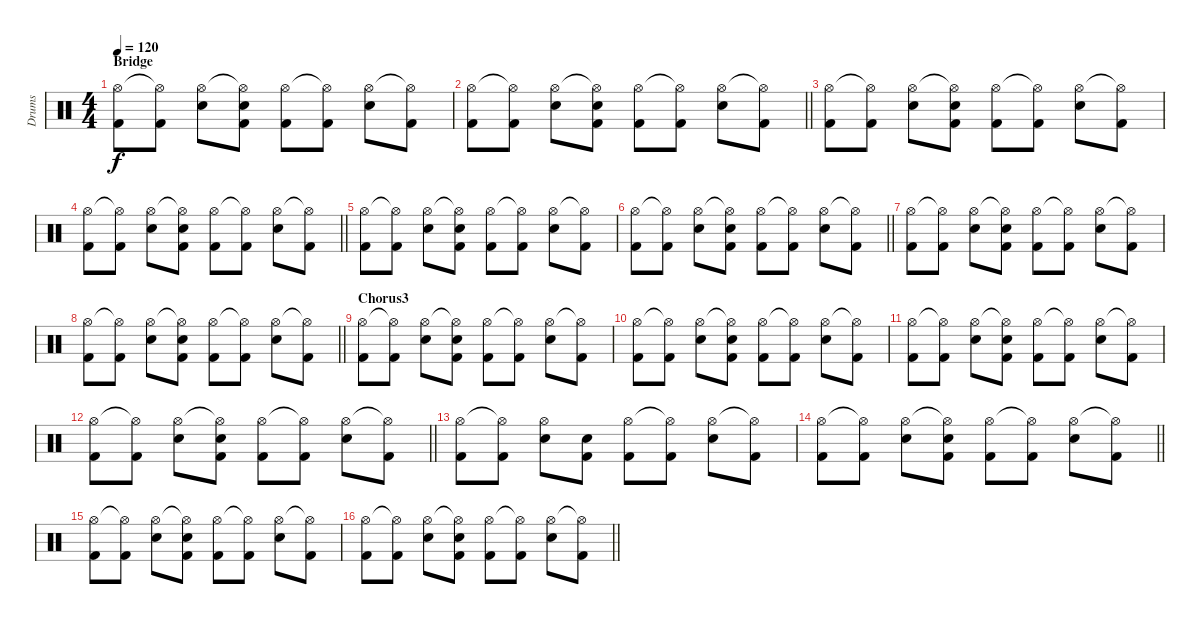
\track ("Drums" "Drums") {instrument percussion}
\staff {score}
\articulation defaults
\ts (4 4)
\section ("" "Bridge")
\tempo 120
\clef neutral
\ks c
("Hi-Hat (open)" "Kick (hit) 2").8{dy f} ("Hi-Hat (open)"{t} "Kick (hit) 2").8 ("Hi-Hat (open)" "Electric Snare (hit)").8 ("Hi-Hat (open)"{t} "Electric Snare (hit)" "Kick (hit) 2").8 ("Hi-Hat (open)" "Kick (hit) 2").8 ("Hi-Hat (open)"{t} "Kick (hit) 2").8 ("Hi-Hat (open)" "Electric Snare (hit)").8 ("Hi-Hat (open)"{t} "Kick (hit) 2").8 |
\barLineRight lightlight
("Hi-Hat (open)" "Kick (hit) 2").8 ("Hi-Hat (open)"{t} "Kick (hit) 2").8 ("Hi-Hat (open)" "Electric Snare (hit)").8 ("Hi-Hat (open)"{t} "Electric Snare (hit)" "Kick (hit) 2").8 ("Hi-Hat (open)" "Kick (hit) 2").8 ("Hi-Hat (open)"{t} "Kick (hit) 2").8 ("Hi-Hat (open)" "Electric Snare (hit)").8 ("Hi-Hat (open)"{t} "Kick (hit) 2").8 |
("Hi-Hat (open)" "Kick (hit) 2").8 ("Hi-Hat (open)"{t} "Kick (hit) 2").8 ("Hi-Hat (open)" "Electric Snare (hit)").8 ("Hi-Hat (open)"{t} "Electric Snare (hit)" "Kick (hit) 2").8 ("Hi-Hat (open)" "Kick (hit) 2").8 ("Hi-Hat (open)"{t} "Kick (hit) 2").8 ("Hi-Hat (open)" "Electric Snare (hit)").8 ("Hi-Hat (open)"{t} "Kick (hit) 2").8 |
\barLineRight lightlight
("Hi-Hat (open)" "Kick (hit) 2").8 ("Hi-Hat (open)"{t} "Kick (hit) 2").8 ("Hi-Hat (open)" "Electric Snare (hit)").8 ("Hi-Hat (open)"{t} "Electric Snare (hit)" "Kick (hit) 2").8 ("Hi-Hat (open)" "Kick (hit) 2").8 ("Hi-Hat (open)"{t} "Kick (hit) 2").8 ("Hi-Hat (open)" "Electric Snare (hit)").8 ("Hi-Hat (open)"{t} "Kick (hit) 2").8 |
("Hi-Hat (open)" "Kick (hit) 2").8 ("Hi-Hat (open)"{t} "Kick (hit) 2").8 ("Hi-Hat (open)" "Electric Snare (hit)").8 ("Hi-Hat (open)"{t} "Electric Snare (hit)" "Kick (hit) 2").8 ("Hi-Hat (open)" "Kick (hit) 2").8 ("Hi-Hat (open)"{t} "Kick (hit) 2").8 ("Hi-Hat (open)" "Electric Snare (hit)").8 ("Hi-Hat (open)"{t} "Kick (hit) 2").8 |
\barLineRight lightlight
("Hi-Hat (open)" "Kick (hit) 2").8 ("Hi-Hat (open)"{t} "Kick (hit) 2").8 ("Hi-Hat (open)" "Electric Snare (hit)").8 ("Hi-Hat (open)"{t} "Electric Snare (hit)" "Kick (hit) 2").8 ("Hi-Hat (open)" "Kick (hit) 2").8 ("Hi-Hat (open)"{t} "Kick (hit) 2").8 ("Hi-Hat (open)" "Electric Snare (hit)").8 ("Hi-Hat (open)"{t} "Kick (hit) 2").8 |
("Hi-Hat (open)" "Kick (hit) 2").8 ("Hi-Hat (open)"{t} "Kick (hit) 2").8 ("Hi-Hat (open)" "Electric Snare (hit)").8 ("Hi-Hat (open)"{t} "Electric Snare (hit)" "Kick (hit) 2").8 ("Hi-Hat (open)" "Kick (hit) 2").8 ("Hi-Hat (open)"{t} "Kick (hit) 2").8 ("Hi-Hat (open)" "Electric Snare (hit)").8 ("Hi-Hat (open)"{t} "Kick (hit) 2").8 |
\barLineRight lightlight
("Hi-Hat (open)" "Kick (hit) 2").8 ("Hi-Hat (open)"{t} "Kick (hit) 2").8 ("Hi-Hat (open)" "Electric Snare (hit)").8 ("Hi-Hat (open)"{t} "Electric Snare (hit)" "Kick (hit) 2").8 ("Hi-Hat (open)" "Kick (hit) 2").8 ("Hi-Hat (open)"{t} "Kick (hit) 2").8 ("Hi-Hat (open)" "Electric Snare (hit)").8 ("Hi-Hat (open)"{t} "Kick (hit) 2").8 |
\section ("" "Chorus3")
("Hi-Hat (open)" "Kick (hit) 2").8 ("Hi-Hat (open)"{t} "Kick (hit) 2").8 ("Hi-Hat (open)" "Electric Snare (hit)").8 ("Hi-Hat (open)"{t} "Electric Snare (hit)" "Kick (hit) 2").8 ("Hi-Hat (open)" "Kick (hit) 2").8 ("Hi-Hat (open)"{t} "Kick (hit) 2").8 ("Hi-Hat (open)" "Electric Snare (hit)").8 ("Hi-Hat (open)"{t} "Kick (hit) 2").8 |
("Hi-Hat (open)" "Kick (hit) 2").8 ("Hi-Hat (open)"{t} "Kick (hit) 2").8 ("Hi-Hat (open)" "Electric Snare (hit)").8 ("Hi-Hat (open)"{t} "Electric Snare (hit)" "Kick (hit) 2").8 ("Hi-Hat (open)" "Kick (hit) 2").8 ("Hi-Hat (open)"{t} "Kick (hit) 2").8 ("Hi-Hat (open)" "Electric Snare (hit)").8 ("Hi-Hat (open)"{t} "Kick (hit) 2").8 |
("Hi-Hat (open)" "Kick (hit) 2").8 ("Hi-Hat (open)"{t} "Kick (hit) 2").8 ("Hi-Hat (open)" "Electric Snare (hit)").8 ("Hi-Hat (open)"{t} "Electric Snare (hit)" "Kick (hit) 2").8 ("Hi-Hat (open)" "Kick (hit) 2").8 ("Hi-Hat (open)"{t} "Kick (hit) 2").8 ("Hi-Hat (open)" "Electric Snare (hit)").8 ("Hi-Hat (open)"{t} "Kick (hit) 2").8 |
\barLineRight lightlight
("Hi-Hat (open)" "Kick (hit) 2").8 ("Hi-Hat (open)"{t} "Kick (hit) 2").8 ("Hi-Hat (open)" "Electric Snare (hit)").8 ("Hi-Hat (open)"{t} "Electric Snare (hit)" "Kick (hit) 2").8 ("Hi-Hat (open)" "Kick (hit) 2").8 ("Hi-Hat (open)"{t} "Kick (hit) 2").8 ("Hi-Hat (open)" "Electric Snare (hit)").8 ("Hi-Hat (open)"{t} "Kick (hit) 2").8 |
("Hi-Hat (open)" "Kick (hit) 2").8 ("Hi-Hat (open)"{t} "Kick (hit) 2").8 ("Hi-Hat (open)" "Electric Snare (hit)").8 ("Electric Snare (hit)" "Kick (hit) 2").8 ("Hi-Hat (open)" "Kick (hit) 2").8 ("Hi-Hat (open)"{t} "Kick (hit) 2").8 ("Hi-Hat (open)" "Electric Snare (hit)").8 ("Hi-Hat (open)"{t} "Kick (hit) 2").8 |
\barLineRight lightlight
("Hi-Hat (open)" "Kick (hit) 2").8 ("Hi-Hat (open)"{t} "Kick (hit) 2").8 ("Hi-Hat (open)" "Electric Snare (hit)").8 ("Hi-Hat (open)"{t} "Electric Snare (hit)" "Kick (hit) 2").8 ("Hi-Hat (open)" "Kick (hit) 2").8 ("Hi-Hat (open)"{t} "Kick (hit) 2").8 ("Hi-Hat (open)" "Electric Snare (hit)").8 ("Hi-Hat (open)"{t} "Kick (hit) 2").8 |
("Hi-Hat (open)" "Kick (hit) 2").8 ("Hi-Hat (open)"{t} "Kick (hit) 2").8 ("Hi-Hat (open)" "Electric Snare (hit)").8 ("Hi-Hat (open)"{t} "Electric Snare (hit)" "Kick (hit) 2").8 ("Hi-Hat (open)" "Kick (hit) 2").8 ("Hi-Hat (open)"{t} "Kick (hit) 2").8 ("Hi-Hat (open)" "Electric Snare (hit)").8 ("Hi-Hat (open)"{t} "Kick (hit) 2").8 |
\barLineRight lightlight
("Hi-Hat (open)" "Kick (hit) 2").8 ("Hi-Hat (open)"{t} "Kick (hit) 2").8 ("Hi-Hat (open)" "Electric Snare (hit)").8 ("Hi-Hat (open)"{t} "Electric Snare (hit)" "Kick (hit) 2").8 ("Hi-Hat (open)" "Kick (hit) 2").8 ("Hi-Hat (open)"{t} "Kick (hit) 2").8 ("Hi-Hat (open)" "Electric Snare (hit)").8 ("Hi-Hat (open)"{t} "Kick (hit) 2").8
